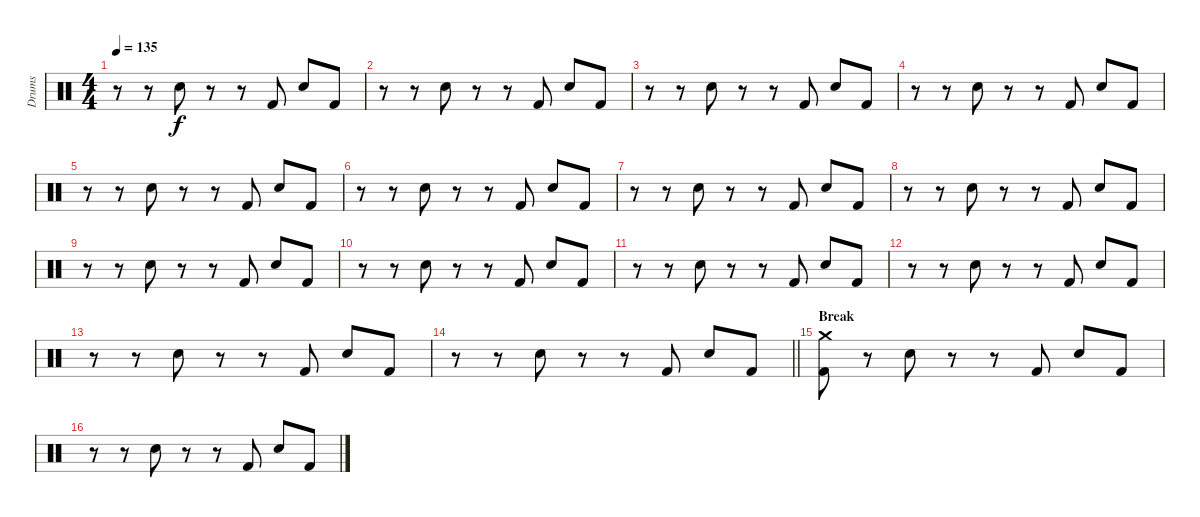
\track ("Drums" "Drums") {instrument percussion}
\staff {score}
\articulation defaults
\ts (4 4)
\tempo 135
\clef neutral
\ks c
r.8{dy f} r.8 "Snare (hit) 2".8 r.8 r.8 "Kick (hit) 2".8 "Snare (hit) 2".8 "Kick (hit) 2".8 |
r.8 r.8 "Snare (hit) 2".8 r.8 r.8 "Kick (hit) 2".8 "Snare (hit) 2".8 "Kick (hit) 2".8 |
r.8 r.8 "Snare (hit) 2".8 r.8 r.8 "Kick (hit) 2".8 "Snare (hit) 2".8 "Kick (hit) 2".8 |
r.8 r.8 "Snare (hit) 2".8 r.8 r.8 "Kick (hit) 2".8 "Snare (hit) 2".8 "Kick (hit) 2".8 |
r.8 r.8 "Snare (hit) 2".8 r.8 r.8 "Kick (hit) 2".8 "Snare (hit) 2".8 "Kick (hit) 2".8 |
r.8 r.8 "Snare (hit) 2".8 r.8 r.8 "Kick (hit) 2".8 "Snare (hit) 2".8 "Kick (hit) 2".8 |
r.8 r.8 "Snare (hit) 2".8 r.8 r.8 "Kick (hit) 2".8 "Snare (hit) 2".8 "Kick (hit) 2".8 |
r.8 r.8 "Snare (hit) 2".8 r.8 r.8 "Kick (hit) 2".8 "Snare (hit) 2".8 "Kick (hit) 2".8 |
r.8 r.8 "Snare (hit) 2".8 r.8 r.8 "Kick (hit) 2".8 "Snare (hit) 2".8 "Kick (hit) 2".8 |
r.8 r.8 "Snare (hit) 2".8 r.8 r.8 "Kick (hit) 2".8 "Snare (hit) 2".8 "Kick (hit) 2".8 |
r.8 r.8 "Snare (hit) 2".8 r.8 r.8 "Kick (hit) 2".8 "Snare (hit) 2".8 "Kick (hit) 2".8 |
r.8 r.8 "Snare (hit) 2".8 r.8 r.8 "Kick (hit) 2".8 "Snare (hit) 2".8 "Kick (hit) 2".8 |
r.8 r.8 "Snare (hit) 2".8 r.8 r.8 "Kick (hit) 2".8 "Snare (hit) 2".8 "Kick (hit) 2".8 |
\barLineRight lightlight
r.8 r.8 "Snare (hit) 2".8 r.8 r.8 "Kick (hit) 2".8 "Snare (hit) 2".8 "Kick (hit) 2".8 |
\section ("" "Break")
("Crash medium (hit)" "Kick (hit) 2").8 r.8 "Snare (hit) 2".8 r.8 r.8 "Kick (hit) 2".8 "Snare (hit) 2".8 "Kick (hit) 2".8 |
r.8 r.8 "Snare (hit) 2".8 r.8 r.8 "Kick (hit) 2".8 "Snare (hit) 2".8 "Kick (hit) 2".8
